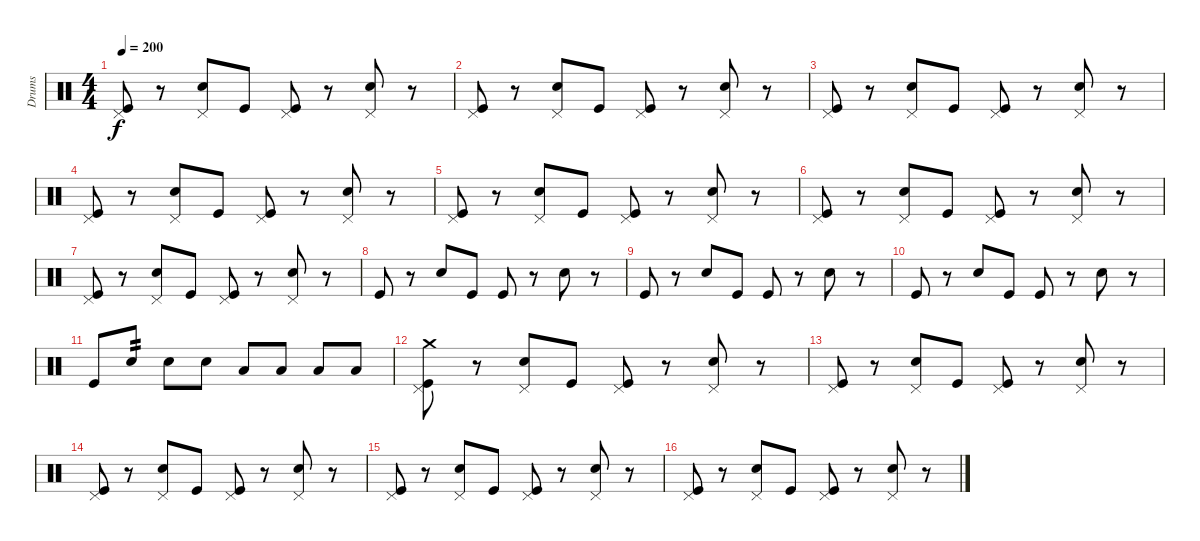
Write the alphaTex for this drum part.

\track ("Drums" "Drums") {instrument percussion}
\staff {score}
\articulation defaults
\ts (4 4)
\tempo 200
\clef neutral
\ks c
("Pedal Hi-Hat (hit)" "Kick (hit)").8{dy f} r.8 ("Pedal Hi-Hat (hit)" "Snare (hit) 2").8 "Kick (hit)".8 ("Pedal Hi-Hat (hit)" "Kick (hit)").8 r.8 ("Pedal Hi-Hat (hit)" "Snare (hit) 2").8 r.8 |
("Pedal Hi-Hat (hit)" "Kick (hit)").8 r.8 ("Pedal Hi-Hat (hit)" "Snare (hit) 2").8 "Kick (hit)".8 ("Pedal Hi-Hat (hit)" "Kick (hit)").8 r.8 ("Pedal Hi-Hat (hit)" "Snare (hit) 2").8 r.8 |
("Pedal Hi-Hat (hit)" "Kick (hit)").8 r.8 ("Pedal Hi-Hat (hit)" "Snare (hit) 2").8 "Kick (hit)".8 ("Pedal Hi-Hat (hit)" "Kick (hit)").8 r.8 ("Pedal Hi-Hat (hit)" "Snare (hit) 2").8 r.8 |
("Pedal Hi-Hat (hit)" "Kick (hit)").8 r.8 ("Pedal Hi-Hat (hit)" "Snare (hit) 2").8 "Kick (hit)".8 ("Pedal Hi-Hat (hit)" "Kick (hit)").8 r.8 ("Pedal Hi-Hat (hit)" "Snare (hit) 2").8 r.8 |
("Pedal Hi-Hat (hit)" "Kick (hit)").8 r.8 ("Pedal Hi-Hat (hit)" "Snare (hit) 2").8 "Kick (hit)".8 ("Pedal Hi-Hat (hit)" "Kick (hit)").8 r.8 ("Pedal Hi-Hat (hit)" "Snare (hit) 2").8 r.8 |
("Pedal Hi-Hat (hit)" "Kick (hit)").8 r.8 ("Pedal Hi-Hat (hit)" "Snare (hit) 2").8 "Kick (hit)".8 ("Pedal Hi-Hat (hit)" "Kick (hit)").8 r.8 ("Pedal Hi-Hat (hit)" "Snare (hit) 2").8 r.8 |
("Pedal Hi-Hat (hit)" "Kick (hit)").8 r.8 ("Pedal Hi-Hat (hit)" "Snare (hit) 2").8 "Kick (hit)".8 ("Pedal Hi-Hat (hit)" "Kick (hit)").8 r.8 ("Pedal Hi-Hat (hit)" "Snare (hit) 2").8 r.8 |
"Kick (hit)".8 r.8 "Snare (hit) 2".8 "Kick (hit)".8 "Kick (hit)".8 r.8 "Snare (hit) 2".8 r.8 |
"Kick (hit)".8 r.8 "Snare (hit) 2".8 "Kick (hit)".8 "Kick (hit)".8 r.8 "Snare (hit) 2".8 r.8 |
"Kick (hit)".8 r.8 "Snare (hit) 2".8 "Kick (hit)".8 "Kick (hit)".8 r.8 "Snare (hit) 2".8 r.8 |
"Kick (hit)".8 "Snare (hit) 2".8{tp 2} "Snare (hit) 2".8 "Snare (hit) 2".8 "Low Tom (hit)".8 "Low Tom (hit)".8 "Low Floor Tom (hit)".8 "Low Floor Tom (hit)".8 |
("Pedal Hi-Hat (hit)" "Crash medium (hit)" "Kick (hit)").8 r.8 ("Pedal Hi-Hat (hit)" "Snare (hit) 2").8 "Kick (hit)".8 ("Pedal Hi-Hat (hit)" "Kick (hit)").8 r.8 ("Pedal Hi-Hat (hit)" "Snare (hit) 2").8 r.8 |
("Pedal Hi-Hat (hit)" "Kick (hit)").8 r.8 ("Pedal Hi-Hat (hit)" "Snare (hit) 2").8 "Kick (hit)".8 ("Pedal Hi-Hat (hit)" "Kick (hit)").8 r.8 ("Pedal Hi-Hat (hit)" "Snare (hit) 2").8 r.8 |
("Pedal Hi-Hat (hit)" "Kick (hit)").8 r.8 ("Pedal Hi-Hat (hit)" "Snare (hit) 2").8 "Kick (hit)".8 ("Pedal Hi-Hat (hit)" "Kick (hit)").8 r.8 ("Pedal Hi-Hat (hit)" "Snare (hit) 2").8 r.8 |
("Pedal Hi-Hat (hit)" "Kick (hit)").8 r.8 ("Pedal Hi-Hat (hit)" "Snare (hit) 2").8 "Kick (hit)".8 ("Pedal Hi-Hat (hit)" "Kick (hit)").8 r.8 ("Pedal Hi-Hat (hit)" "Snare (hit) 2").8 r.8 |
("Pedal Hi-Hat (hit)" "Kick (hit)").8 r.8 ("Pedal Hi-Hat (hit)" "Snare (hit) 2").8 "Kick (hit)".8 ("Pedal Hi-Hat (hit)" "Kick (hit)").8 r.8 ("Pedal Hi-Hat (hit)" "Snare (hit) 2").8 r.8
